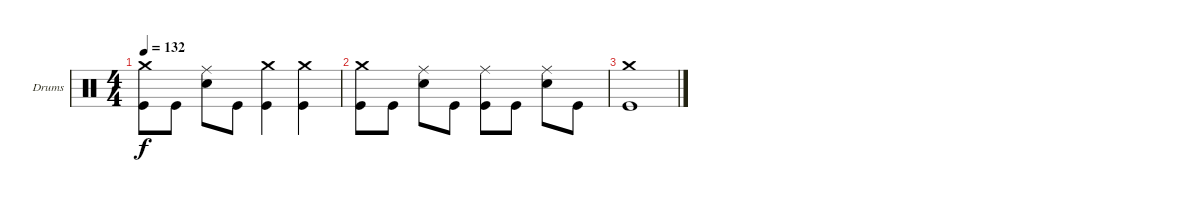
\bracketExtendMode groupsimilarinstruments
\firstSystemTrackNameOrientation horizontal
\otherSystemsTrackNameOrientation horizontal
\track ("Drums" "Drums") {instrument percussion}
\staff {score}
\articulation defaults
\ts (4 4)
\tempo 132
\clef neutral
\ks c
("Crash medium (hit)" "Kick (hit)").8{dy f} "Kick (hit)".8 ("Ride (middle)" "Snare (hit) 2").8 "Kick (hit)".8 ("Crash medium (hit)" "Kick (hit)").4 ("Crash medium (hit)" "Kick (hit)").4 |
("Crash medium (hit)" "Kick (hit)").8 "Kick (hit)".8 ("Ride (middle)" "Snare (hit) 2").8 "Kick (hit)".8 ("Ride (middle)" "Kick (hit)").8 "Kick (hit)".8 ("Ride (middle)" "Snare (hit) 2").8 "Kick (hit)".8 |
("Crash medium (hit)" "Kick (hit)").1
